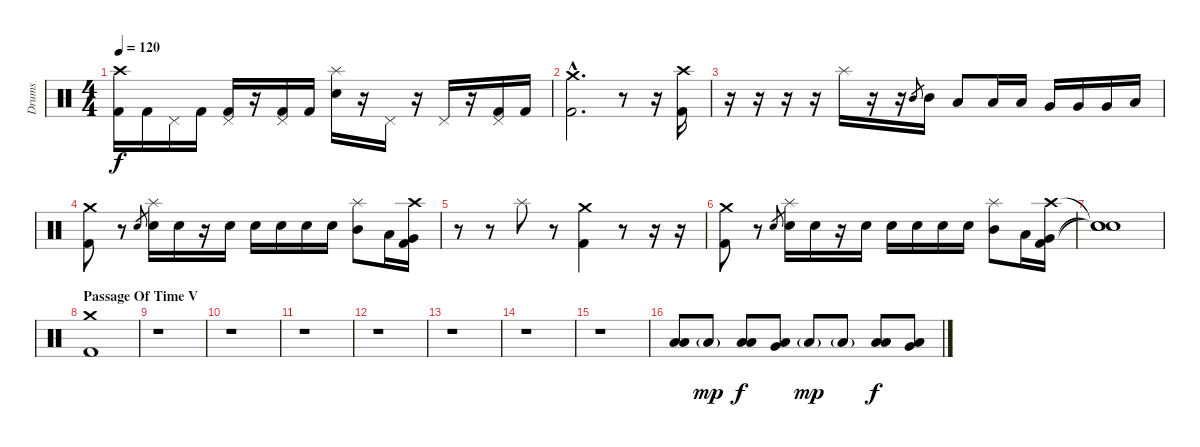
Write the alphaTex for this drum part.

\track ("Drums" "Drums") {instrument percussion}
\staff {score}
\articulation defaults
\ts (4 4)
\tempo 120
\clef neutral
\ks c
("Crash high (hit)" "Kick (hit) 2").16{dy f} "Kick (hit) 2".16 "Pedal Hi-Hat (hit)".16 "Kick (hit) 2".16 ("Pedal Hi-Hat (hit)" "Kick (hit) 2").16 r.16 ("Pedal Hi-Hat (hit)" "Kick (hit) 2").16 "Kick (hit) 2".16 ("Splash (hit)" "Electric Snare (hit)").16 r.16 "Pedal Hi-Hat (hit)".16 r.16 "Pedal Hi-Hat (hit)".16 r.16 ("Pedal Hi-Hat (hit)" "Kick (hit) 2").16 "Kick (hit) 2".16 |
\section ("" "")
("Crash medium (hit)"{hac} "Kick (hit) 2"{hac}).2{d} r.8 r.16 ("Crash high (hit)" "Kick (hit) 2").16 |
r.16 r.16 r.16 r.16 "Splash (hit)".16 r.16 r.16 "Mid Tom (hit)".8{gr} "Mid Tom (hit)".16 "Low Tom (hit)".8 "Low Tom (hit)".16 "Low Tom (hit)".16 "Very Low Tom (hit)".16 "Very Low Tom (hit)".16 "Very Low Tom (hit)".16 "Low Floor Tom (hit)".16 |
("Crash medium (hit)" "Kick (hit) 2").8 r.8 "Electric Snare (hit)".8{gr} ("Splash (hit)" "Electric Snare (hit)").16 "Electric Snare (hit)".16 r.16 "Electric Snare (hit)".16 "Electric Snare (hit)".16 "Electric Snare (hit)".16 "Electric Snare (hit)".16 "Electric Snare (hit)".16 ("Splash (hit)" "Mid Tom (hit)").8 "Low Tom (hit)".16 ("Crash high (hit)" "Very Low Tom (hit)" "Kick (hit) 2").16 |
r.8 r.8 "Splash (hit)".8 r.8 ("Crash medium (hit)" "Kick (hit) 2").4 r.8 r.16 r.16 |
("Crash medium (hit)" "Kick (hit) 2").8 r.8 "Electric Snare (hit)".8{gr} ("Splash (hit)" "Electric Snare (hit)").16 "Electric Snare (hit)".16 r.16 "Electric Snare (hit)".16 "Electric Snare (hit)".16 "Electric Snare (hit)".16 "Electric Snare (hit)".16 "Electric Snare (hit)".16 ("Splash (hit)" "Mid Tom (hit)").8 "Low Tom (hit)".16 ("Crash high (hit)" "Very Low Tom (hit)" "Kick (hit) 2").16 |
("Snare (hit)"{t} "Snare (hit)"{t} "Snare (hit)"{t}).1 |
\section ("" "Passage Of Time V")
("Crash medium (hit)" "Kick (hit) 2").1 |
r.1 |
r.1 |
r.1 |
r.1 |
r.1 |
r.1 |
r.1 |
\section ("" "")
("Low Tom (hit)" "Low Floor Tom (hit)").8 "Low Floor Tom (hit)"{g}.8{dy mp} ("Low Tom (hit)" "Low Floor Tom (hit)").8{dy f} ("Very Low Tom (hit)" "Low Floor Tom (hit)").8 "Low Floor Tom (hit)"{g}.8{dy mp} "Low Floor Tom (hit)"{g}.8 ("Low Tom (hit)" "Low Floor Tom (hit)").8{dy f} ("Very Low Tom (hit)" "Low Floor Tom (hit)").8
